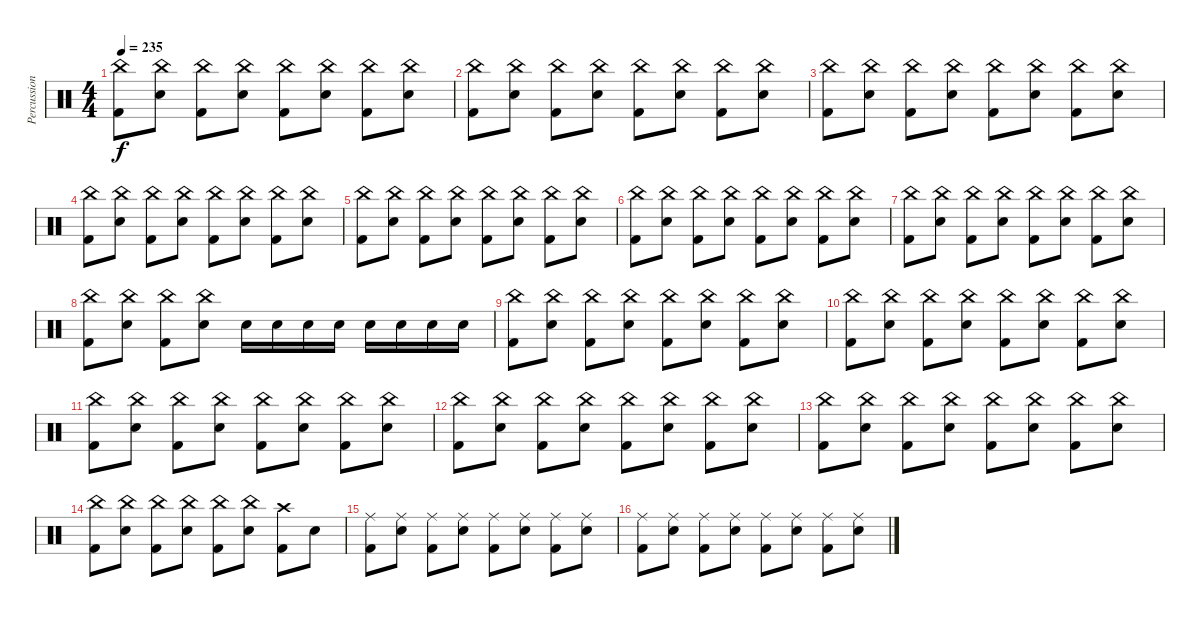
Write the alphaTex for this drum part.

\track ("Percussion- Scott Raynor" "Percussion") {instrument percussion}
\staff {score}
\articulation defaults
\ts (4 4)
\tempo 235
\clef neutral
\ks c
("China (hit)" "Kick (hit) 2").8{dy f} ("China (hit)" "Snare (hit) 2").8 ("China (hit)" "Kick (hit) 2").8 ("China (hit)" "Snare (hit) 2").8 ("China (hit)" "Kick (hit) 2").8 ("China (hit)" "Snare (hit) 2").8 ("China (hit)" "Kick (hit) 2").8 ("China (hit)" "Snare (hit) 2").8 |
("China (hit)" "Kick (hit) 2").8 ("China (hit)" "Snare (hit) 2").8 ("China (hit)" "Kick (hit) 2").8 ("China (hit)" "Snare (hit) 2").8 ("China (hit)" "Kick (hit) 2").8 ("China (hit)" "Snare (hit) 2").8 ("China (hit)" "Kick (hit) 2").8 ("China (hit)" "Snare (hit) 2").8 |
("China (hit)" "Kick (hit) 2").8 ("China (hit)" "Snare (hit) 2").8 ("China (hit)" "Kick (hit) 2").8 ("China (hit)" "Snare (hit) 2").8 ("China (hit)" "Kick (hit) 2").8 ("China (hit)" "Snare (hit) 2").8 ("China (hit)" "Kick (hit) 2").8 ("China (hit)" "Snare (hit) 2").8 |
("China (hit)" "Kick (hit) 2").8 ("China (hit)" "Snare (hit) 2").8 ("China (hit)" "Kick (hit) 2").8 ("China (hit)" "Snare (hit) 2").8 ("China (hit)" "Kick (hit) 2").8 ("China (hit)" "Snare (hit) 2").8 ("China (hit)" "Kick (hit) 2").8 ("China (hit)" "Snare (hit) 2").8 |
("China (hit)" "Kick (hit) 2").8 ("China (hit)" "Snare (hit) 2").8 ("China (hit)" "Kick (hit) 2").8 ("China (hit)" "Snare (hit) 2").8 ("China (hit)" "Kick (hit) 2").8 ("China (hit)" "Snare (hit) 2").8 ("China (hit)" "Kick (hit) 2").8 ("China (hit)" "Snare (hit) 2").8 |
("China (hit)" "Kick (hit) 2").8 ("China (hit)" "Snare (hit) 2").8 ("China (hit)" "Kick (hit) 2").8 ("China (hit)" "Snare (hit) 2").8 ("China (hit)" "Kick (hit) 2").8 ("China (hit)" "Snare (hit) 2").8 ("China (hit)" "Kick (hit) 2").8 ("China (hit)" "Snare (hit) 2").8 |
("China (hit)" "Kick (hit) 2").8 ("China (hit)" "Snare (hit) 2").8 ("China (hit)" "Kick (hit) 2").8 ("China (hit)" "Snare (hit) 2").8 ("China (hit)" "Kick (hit) 2").8 ("China (hit)" "Snare (hit) 2").8 ("China (hit)" "Kick (hit) 2").8 ("China (hit)" "Snare (hit) 2").8 |
("China (hit)" "Kick (hit) 2").8 ("China (hit)" "Snare (hit) 2").8 ("China (hit)" "Kick (hit) 2").8 ("China (hit)" "Snare (hit) 2").8 "Snare (hit) 2".16 "Snare (hit) 2".16 "Snare (hit) 2".16 "Snare (hit) 2".16 "Snare (hit) 2".16 "Snare (hit) 2".16 "Snare (hit) 2".16 "Snare (hit) 2".16 |
("China (hit)" "Kick (hit) 2").8 ("China (hit)" "Snare (hit) 2").8 ("China (hit)" "Kick (hit) 2").8 ("China (hit)" "Snare (hit) 2").8 ("China (hit)" "Kick (hit) 2").8 ("China (hit)" "Snare (hit) 2").8 ("China (hit)" "Kick (hit) 2").8 ("China (hit)" "Snare (hit) 2").8 |
("China (hit)" "Kick (hit) 2").8 ("China (hit)" "Snare (hit) 2").8 ("China (hit)" "Kick (hit) 2").8 ("China (hit)" "Snare (hit) 2").8 ("China (hit)" "Kick (hit) 2").8 ("China (hit)" "Snare (hit) 2").8 ("China (hit)" "Kick (hit) 2").8 ("China (hit)" "Snare (hit) 2").8 |
("China (hit)" "Kick (hit) 2").8 ("China (hit)" "Snare (hit) 2").8 ("China (hit)" "Kick (hit) 2").8 ("China (hit)" "Snare (hit) 2").8 ("China (hit)" "Kick (hit) 2").8 ("China (hit)" "Snare (hit) 2").8 ("China (hit)" "Kick (hit) 2").8 ("China (hit)" "Snare (hit) 2").8 |
("China (hit)" "Kick (hit) 2").8 ("China (hit)" "Snare (hit) 2").8 ("China (hit)" "Kick (hit) 2").8 ("China (hit)" "Snare (hit) 2").8 ("China (hit)" "Kick (hit) 2").8 ("China (hit)" "Snare (hit) 2").8 ("China (hit)" "Kick (hit) 2").8 ("China (hit)" "Snare (hit) 2").8 |
("China (hit)" "Kick (hit) 2").8 ("China (hit)" "Snare (hit) 2").8 ("China (hit)" "Kick (hit) 2").8 ("China (hit)" "Snare (hit) 2").8 ("China (hit)" "Kick (hit) 2").8 ("China (hit)" "Snare (hit) 2").8 ("China (hit)" "Kick (hit) 2").8 ("China (hit)" "Snare (hit) 2").8 |
("China (hit)" "Kick (hit) 2").8 ("China (hit)" "Snare (hit) 2").8 ("China (hit)" "Kick (hit) 2").8 ("China (hit)" "Snare (hit) 2").8 ("China (hit)" "Kick (hit) 2").8 ("China (hit)" "Snare (hit) 2").8 ("Crash high (hit)" "Kick (hit) 2").8 "Snare (hit) 2".8 |
("Ride (middle)" "Kick (hit) 2").8 ("Ride (middle)" "Snare (hit) 2").8 ("Ride (middle)" "Kick (hit) 2").8 ("Ride (middle)" "Snare (hit) 2").8 ("Ride (middle)" "Kick (hit) 2").8 ("Ride (middle)" "Snare (hit) 2").8 ("Ride (middle)" "Kick (hit) 2").8 ("Ride (middle)" "Snare (hit) 2").8 |
("Ride (middle)" "Kick (hit) 2").8 ("Ride (middle)" "Snare (hit) 2").8 ("Ride (middle)" "Kick (hit) 2").8 ("Ride (middle)" "Snare (hit) 2").8 ("Ride (middle)" "Kick (hit) 2").8 ("Ride (middle)" "Snare (hit) 2").8 ("Ride (middle)" "Kick (hit) 2").8 ("Ride (middle)" "Snare (hit) 2").8
